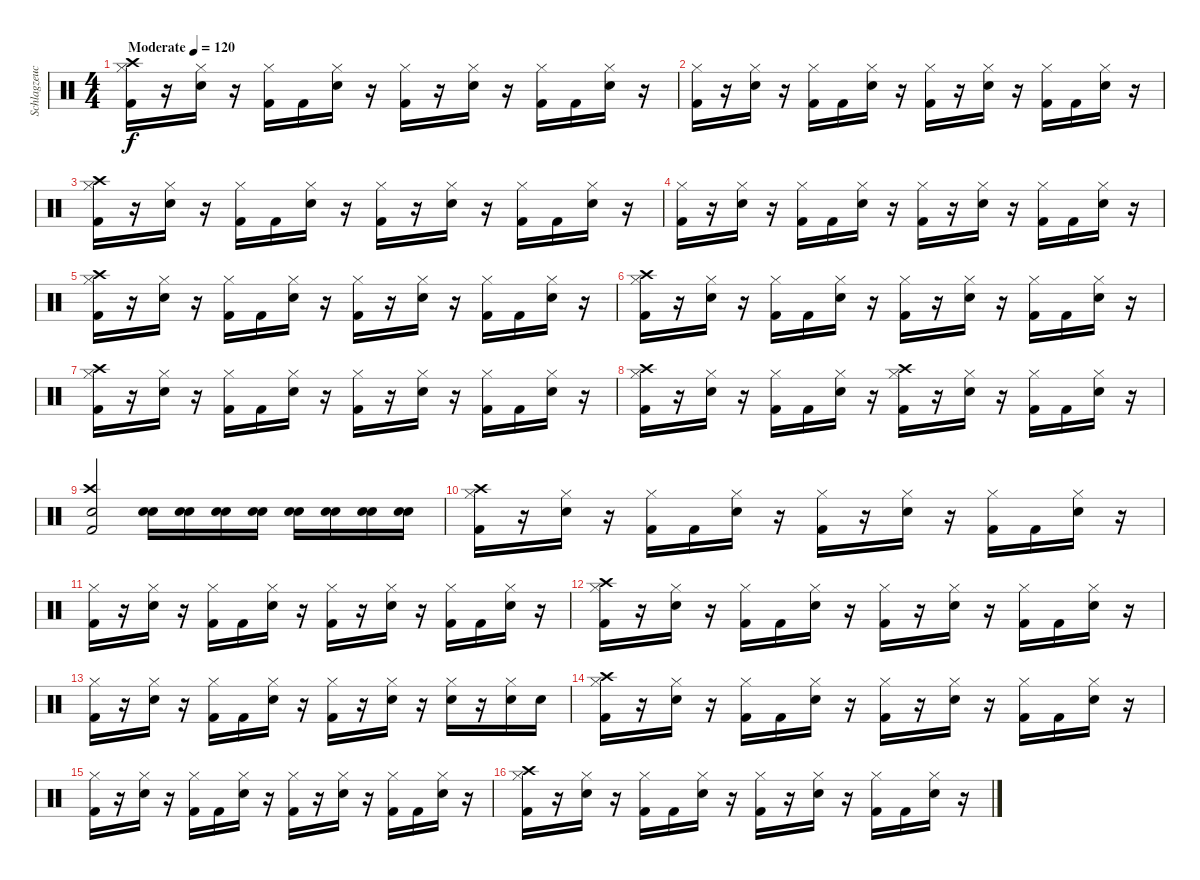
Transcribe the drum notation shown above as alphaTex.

\track ("Schlagzeuch" "Schlagzeuc") {instrument percussion}
\staff {score}
\articulation defaults
\ts (4 4)
\tempo (120 "Moderate")
\clef neutral
\ks c
("Hi-Hat (closed)" "Kick (hit) 2" "Crash high (hit)").16{dy f} r.16 ("Hi-Hat (closed)" "Snare (hit) 2").16 r.16 ("Hi-Hat (closed)" "Kick (hit) 2").16 "Kick (hit) 2".16 ("Hi-Hat (closed)" "Snare (hit) 2").16 r.16 ("Hi-Hat (closed)" "Kick (hit) 2").16 r.16 ("Hi-Hat (closed)" "Snare (hit) 2").16 r.16 ("Hi-Hat (closed)" "Kick (hit) 2").16 "Kick (hit) 2".16 ("Hi-Hat (closed)" "Snare (hit) 2").16 r.16 |
("Hi-Hat (closed)" "Kick (hit) 2").16 r.16 ("Hi-Hat (closed)" "Snare (hit) 2").16 r.16 ("Hi-Hat (closed)" "Kick (hit) 2").16 "Kick (hit) 2".16 ("Hi-Hat (closed)" "Snare (hit) 2").16 r.16 ("Hi-Hat (closed)" "Kick (hit) 2").16 r.16 ("Hi-Hat (closed)" "Snare (hit) 2").16 r.16 ("Hi-Hat (closed)" "Kick (hit) 2").16 "Kick (hit) 2".16 ("Hi-Hat (closed)" "Snare (hit) 2").16 r.16 |
("Hi-Hat (closed)" "Kick (hit) 2" "Crash high (hit)").16 r.16 ("Hi-Hat (closed)" "Snare (hit) 2").16 r.16 ("Hi-Hat (closed)" "Kick (hit) 2").16 "Kick (hit) 2".16 ("Hi-Hat (closed)" "Snare (hit) 2").16 r.16 ("Hi-Hat (closed)" "Kick (hit) 2").16 r.16 ("Hi-Hat (closed)" "Snare (hit) 2").16 r.16 ("Hi-Hat (closed)" "Kick (hit) 2").16 "Kick (hit) 2".16 ("Hi-Hat (closed)" "Snare (hit) 2").16 r.16 |
("Hi-Hat (closed)" "Kick (hit) 2").16 r.16 ("Hi-Hat (closed)" "Snare (hit) 2").16 r.16 ("Hi-Hat (closed)" "Kick (hit) 2").16 "Kick (hit) 2".16 ("Hi-Hat (closed)" "Snare (hit) 2").16 r.16 ("Hi-Hat (closed)" "Kick (hit) 2").16 r.16 ("Hi-Hat (closed)" "Snare (hit) 2").16 r.16 ("Hi-Hat (closed)" "Kick (hit) 2").16 "Kick (hit) 2".16 ("Hi-Hat (closed)" "Snare (hit) 2").16 r.16 |
("Hi-Hat (closed)" "Kick (hit) 2" "Crash high (hit)").16 r.16 ("Hi-Hat (closed)" "Snare (hit) 2").16 r.16 ("Hi-Hat (closed)" "Kick (hit) 2").16 "Kick (hit) 2".16 ("Hi-Hat (closed)" "Snare (hit) 2").16 r.16 ("Hi-Hat (closed)" "Kick (hit) 2").16 r.16 ("Hi-Hat (closed)" "Snare (hit) 2").16 r.16 ("Hi-Hat (closed)" "Kick (hit) 2").16 "Kick (hit) 2".16 ("Hi-Hat (closed)" "Snare (hit) 2").16 r.16 |
("Hi-Hat (closed)" "Kick (hit) 2" "Crash high (hit)").16 r.16 ("Hi-Hat (closed)" "Snare (hit) 2").16 r.16 ("Hi-Hat (closed)" "Kick (hit) 2").16 "Kick (hit) 2".16 ("Hi-Hat (closed)" "Snare (hit) 2").16 r.16 ("Hi-Hat (closed)" "Kick (hit) 2").16 r.16 ("Hi-Hat (closed)" "Snare (hit) 2").16 r.16 ("Hi-Hat (closed)" "Kick (hit) 2").16 "Kick (hit) 2".16 ("Hi-Hat (closed)" "Snare (hit) 2").16 r.16 |
("Hi-Hat (closed)" "Kick (hit) 2" "Crash high (hit)").16 r.16 ("Hi-Hat (closed)" "Snare (hit) 2").16 r.16 ("Hi-Hat (closed)" "Kick (hit) 2").16 "Kick (hit) 2".16 ("Hi-Hat (closed)" "Snare (hit) 2").16 r.16 ("Hi-Hat (closed)" "Kick (hit) 2").16 r.16 ("Hi-Hat (closed)" "Snare (hit) 2").16 r.16 ("Hi-Hat (closed)" "Kick (hit) 2").16 "Kick (hit) 2".16 ("Hi-Hat (closed)" "Snare (hit) 2").16 r.16 |
("Hi-Hat (closed)" "Kick (hit) 2" "Crash high (hit)").16 r.16 ("Hi-Hat (closed)" "Snare (hit) 2").16 r.16 ("Hi-Hat (closed)" "Kick (hit) 2").16 "Kick (hit) 2".16 ("Hi-Hat (closed)" "Snare (hit) 2").16 r.16 ("Hi-Hat (closed)" "Kick (hit) 2" "Crash high (hit)").16 r.16 ("Hi-Hat (closed)" "Snare (hit) 2").16 r.16 ("Hi-Hat (closed)" "Kick (hit) 2").16 "Kick (hit) 2".16 ("Hi-Hat (closed)" "Snare (hit) 2").16 r.16 |
("Kick (hit) 2" "Snare (hit) 2" "Crash high (hit)").2 ("Snare (hit) 2" "Snare (hit) 2").16 ("Snare (hit) 2" "Snare (hit) 2").16 ("Snare (hit) 2" "Snare (hit) 2").16 ("Snare (hit) 2" "Snare (hit) 2").16 ("Snare (hit) 2" "Snare (hit) 2").16 ("Snare (hit) 2" "Snare (hit) 2").16 ("Snare (hit) 2" "Snare (hit) 2").16 ("Snare (hit) 2" "Snare (hit) 2").16 |
("Hi-Hat (closed)" "Kick (hit) 2" "Crash high (hit)").16 r.16 ("Hi-Hat (closed)" "Snare (hit) 2").16 r.16 ("Hi-Hat (closed)" "Kick (hit) 2").16 "Kick (hit) 2".16 ("Hi-Hat (closed)" "Snare (hit) 2").16 r.16 ("Hi-Hat (closed)" "Kick (hit) 2").16 r.16 ("Hi-Hat (closed)" "Snare (hit) 2").16 r.16 ("Hi-Hat (closed)" "Kick (hit) 2").16 "Kick (hit) 2".16 ("Hi-Hat (closed)" "Snare (hit) 2").16 r.16 |
("Hi-Hat (closed)" "Kick (hit) 2").16 r.16 ("Hi-Hat (closed)" "Snare (hit) 2").16 r.16 ("Hi-Hat (closed)" "Kick (hit) 2").16 "Kick (hit) 2".16 ("Hi-Hat (closed)" "Snare (hit) 2").16 r.16 ("Hi-Hat (closed)" "Kick (hit) 2").16 r.16 ("Hi-Hat (closed)" "Snare (hit) 2").16 r.16 ("Hi-Hat (closed)" "Kick (hit) 2").16 "Kick (hit) 2".16 ("Hi-Hat (closed)" "Snare (hit) 2").16 r.16 |
("Hi-Hat (closed)" "Kick (hit) 2" "Crash high (hit)").16 r.16 ("Hi-Hat (closed)" "Snare (hit) 2").16 r.16 ("Hi-Hat (closed)" "Kick (hit) 2").16 "Kick (hit) 2".16 ("Hi-Hat (closed)" "Snare (hit) 2").16 r.16 ("Hi-Hat (closed)" "Kick (hit) 2").16 r.16 ("Hi-Hat (closed)" "Snare (hit) 2").16 r.16 ("Hi-Hat (closed)" "Kick (hit) 2").16 "Kick (hit) 2".16 ("Hi-Hat (closed)" "Snare (hit) 2").16 r.16 |
("Hi-Hat (closed)" "Kick (hit) 2").16 r.16 ("Hi-Hat (closed)" "Snare (hit) 2").16 r.16 ("Hi-Hat (closed)" "Kick (hit) 2").16 "Kick (hit) 2".16 ("Hi-Hat (closed)" "Snare (hit) 2").16 r.16 ("Hi-Hat (closed)" "Kick (hit) 2").16 r.16 ("Hi-Hat (closed)" "Snare (hit) 2").16 r.16 ("Hi-Hat (closed)" "Snare (hit) 2").16 r.16 ("Hi-Hat (closed)" "Snare (hit) 2").16 "Snare (hit) 2".16 |
("Hi-Hat (closed)" "Kick (hit) 2" "Crash high (hit)").16 r.16 ("Hi-Hat (closed)" "Snare (hit) 2").16 r.16 ("Hi-Hat (closed)" "Kick (hit) 2").16 "Kick (hit) 2".16 ("Hi-Hat (closed)" "Snare (hit) 2").16 r.16 ("Hi-Hat (closed)" "Kick (hit) 2").16 r.16 ("Hi-Hat (closed)" "Snare (hit) 2").16 r.16 ("Hi-Hat (closed)" "Kick (hit) 2").16 "Kick (hit) 2".16 ("Hi-Hat (closed)" "Snare (hit) 2").16 r.16 |
("Hi-Hat (closed)" "Kick (hit) 2").16 r.16 ("Hi-Hat (closed)" "Snare (hit) 2").16 r.16 ("Hi-Hat (closed)" "Kick (hit) 2").16 "Kick (hit) 2".16 ("Hi-Hat (closed)" "Snare (hit) 2").16 r.16 ("Hi-Hat (closed)" "Kick (hit) 2").16 r.16 ("Hi-Hat (closed)" "Snare (hit) 2").16 r.16 ("Hi-Hat (closed)" "Kick (hit) 2").16 "Kick (hit) 2".16 ("Hi-Hat (closed)" "Snare (hit) 2").16 r.16 |
("Hi-Hat (closed)" "Kick (hit) 2" "Crash high (hit)").16 r.16 ("Hi-Hat (closed)" "Snare (hit) 2").16 r.16 ("Hi-Hat (closed)" "Kick (hit) 2").16 "Kick (hit) 2".16 ("Hi-Hat (closed)" "Snare (hit) 2").16 r.16 ("Hi-Hat (closed)" "Kick (hit) 2").16 r.16 ("Hi-Hat (closed)" "Snare (hit) 2").16 r.16 ("Hi-Hat (closed)" "Kick (hit) 2").16 "Kick (hit) 2".16 ("Hi-Hat (closed)" "Snare (hit) 2").16 r.16
